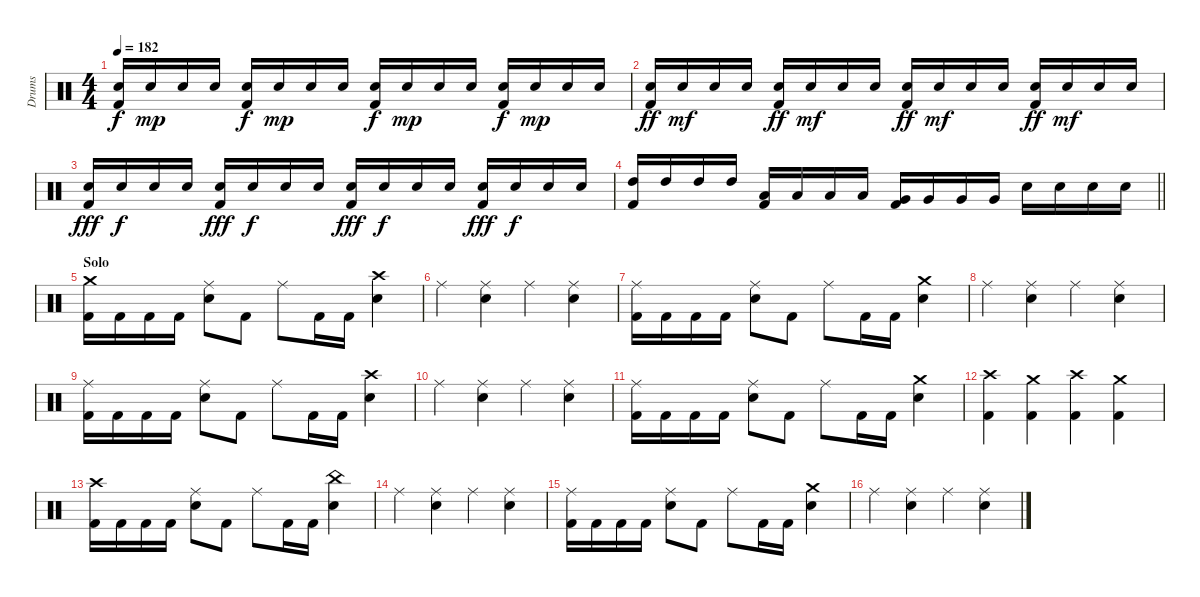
\track ("Drums" "Drums") {instrument percussion}
\staff {score}
\articulation defaults
\ts (4 4)
\tempo 182
\clef neutral
\ks c
("Snare (hit) 2" "Kick (hit) 2").16{dy f} "Snare (hit) 2".16{dy mp} "Snare (hit) 2".16 "Snare (hit) 2".16 ("Snare (hit) 2" "Kick (hit) 2").16{dy f} "Snare (hit) 2".16{dy mp} "Snare (hit) 2".16 "Snare (hit) 2".16 ("Snare (hit) 2" "Kick (hit) 2").16{dy f} "Snare (hit) 2".16{dy mp} "Snare (hit) 2".16 "Snare (hit) 2".16 ("Snare (hit) 2" "Kick (hit) 2").16{dy f} "Snare (hit) 2".16{dy mp} "Snare (hit) 2".16 "Snare (hit) 2".16 |
("Snare (hit) 2" "Kick (hit) 2").16{dy ff} "Snare (hit) 2".16{dy mf} "Snare (hit) 2".16 "Snare (hit) 2".16 ("Snare (hit) 2" "Kick (hit) 2").16{dy ff} "Snare (hit) 2".16{dy mf} "Snare (hit) 2".16 "Snare (hit) 2".16 ("Snare (hit) 2" "Kick (hit) 2").16{dy ff} "Snare (hit) 2".16{dy mf} "Snare (hit) 2".16 "Snare (hit) 2".16 ("Snare (hit) 2" "Kick (hit) 2").16{dy ff} "Snare (hit) 2".16{dy mf} "Snare (hit) 2".16 "Snare (hit) 2".16 |
("Snare (hit) 2" "Kick (hit) 2").16{dy fff} "Snare (hit) 2".16{dy f} "Snare (hit) 2".16 "Snare (hit) 2".16 ("Snare (hit) 2" "Kick (hit) 2").16{dy fff} "Snare (hit) 2".16{dy f} "Snare (hit) 2".16 "Snare (hit) 2".16 ("Snare (hit) 2" "Kick (hit) 2").16{dy fff} "Snare (hit) 2".16{dy f} "Snare (hit) 2".16 "Snare (hit) 2".16 ("Snare (hit) 2" "Kick (hit) 2").16{dy fff} "Snare (hit) 2".16{dy f} "Snare (hit) 2".16 "Snare (hit) 2".16 |
\barLineRight lightlight
("High Tom (hit)" "Kick (hit) 2").16 "High Tom (hit)".16 "High Tom (hit)".16 "High Tom (hit)".16 ("Low Tom (hit)" "Kick (hit) 2").16 "Low Tom (hit)".16 "Low Tom (hit)".16 "Low Tom (hit)".16 ("Very Low Tom (hit)" "Kick (hit) 2").16 "Very Low Tom (hit)".16 "Very Low Tom (hit)".16 "Very Low Tom (hit)".16 "Snare (hit) 2".16 "Snare (hit) 2".16 "Snare (hit) 2".16 "Snare (hit) 2".16 |
\section ("" "Solo")
("Crash medium (hit)" "Kick (hit) 2").16 "Kick (hit) 2".16 "Kick (hit) 2".16 "Kick (hit) 2".16 ("Ride (middle)" "Snare (hit) 2").8 "Kick (hit) 2".8 "Ride (middle)".8 "Kick (hit) 2".16 "Kick (hit) 2".16 ("Crash high (hit)" "Snare (hit) 2").4 |
"Ride (middle)".4 ("Ride (middle)" "Snare (hit) 2").4 "Ride (middle)".4 ("Ride (middle)" "Snare (hit) 2").4 |
("Ride (middle)" "Kick (hit) 2").16 "Kick (hit) 2".16 "Kick (hit) 2".16 "Kick (hit) 2".16 ("Ride (middle)" "Snare (hit) 2").8 "Kick (hit) 2".8 "Ride (middle)".8 "Kick (hit) 2".16 "Kick (hit) 2".16 ("Crash medium (hit)" "Snare (hit) 2").4 |
"Ride (middle)".4 ("Ride (middle)" "Snare (hit) 2").4 "Ride (middle)".4 ("Ride (middle)" "Snare (hit) 2").4 |
("Ride (middle)" "Kick (hit) 2").16 "Kick (hit) 2".16 "Kick (hit) 2".16 "Kick (hit) 2".16 ("Ride (middle)" "Snare (hit) 2").8 "Kick (hit) 2".8 "Ride (middle)".8 "Kick (hit) 2".16 "Kick (hit) 2".16 ("Crash high (hit)" "Snare (hit) 2").4 |
"Ride (middle)".4 ("Ride (middle)" "Snare (hit) 2").4 "Ride (middle)".4 ("Ride (middle)" "Snare (hit) 2").4 |
("Ride (middle)" "Kick (hit) 2").16 "Kick (hit) 2".16 "Kick (hit) 2".16 "Kick (hit) 2".16 ("Ride (middle)" "Snare (hit) 2").8 "Kick (hit) 2".8 "Ride (middle)".8 "Kick (hit) 2".16 "Kick (hit) 2".16 ("Crash medium (hit)" "Snare (hit) 2").4 |
("Crash high (hit)" "Kick (hit) 2").4 ("Crash medium (hit)" "Kick (hit) 2").4 ("Crash high (hit)" "Kick (hit) 2").4 ("Crash medium (hit)" "Kick (hit) 2").4 |
("Crash high (hit)" "Kick (hit) 2").16 "Kick (hit) 2".16 "Kick (hit) 2".16 "Kick (hit) 2".16 ("Ride (middle)" "Snare (hit) 2").8 "Kick (hit) 2".8 "Ride (middle)".8 "Kick (hit) 2".16 "Kick (hit) 2".16 ("China (hit)" "Snare (hit) 2").4 |
"Ride (middle)".4 ("Ride (middle)" "Snare (hit) 2").4 "Ride (middle)".4 ("Ride (middle)" "Snare (hit) 2").4 |
("Ride (middle)" "Kick (hit) 2").16 "Kick (hit) 2".16 "Kick (hit) 2".16 "Kick (hit) 2".16 ("Ride (middle)" "Snare (hit) 2").8 "Kick (hit) 2".8 "Ride (middle)".8 "Kick (hit) 2".16 "Kick (hit) 2".16 ("Crash medium (hit)" "Snare (hit) 2").4 |
"Ride (middle)".4 ("Ride (middle)" "Snare (hit) 2").4 "Ride (middle)".4 ("Ride (middle)" "Snare (hit) 2").4
